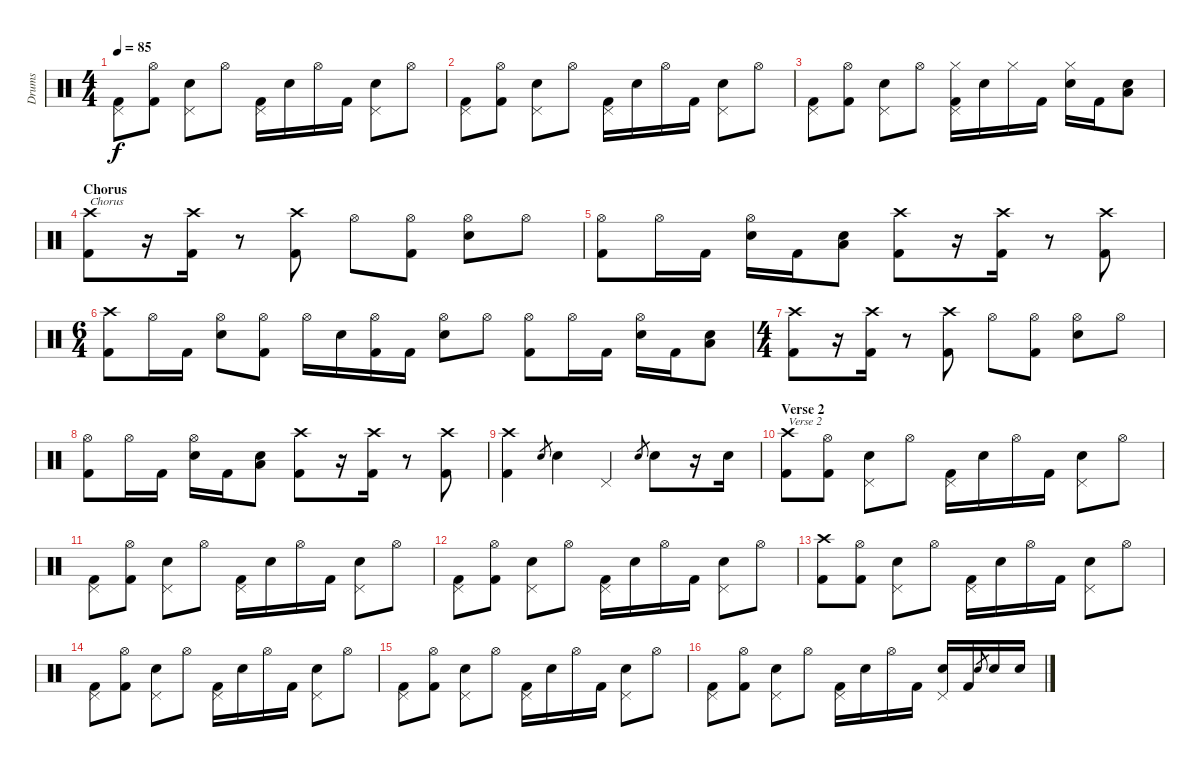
\track ("Drums" "Drums") {instrument percussion}
\staff {score}
\articulation defaults
\ts (4 4)
\tempo 85
\clef neutral
\ks c
("Pedal Hi-Hat (hit)" "Kick (hit) 2").8{dy f} ("Hi-Hat (open)" "Kick (hit) 2").8 ("Electric Snare (hit)" "Pedal Hi-Hat (hit)").8 "Hi-Hat (open)".8 ("Pedal Hi-Hat (hit)" "Kick (hit) 2").16 "Electric Snare (hit)".16 "Hi-Hat (open)".16 "Kick (hit) 2".16 ("Electric Snare (hit)" "Pedal Hi-Hat (hit)").8 "Hi-Hat (open)".8 |
("Pedal Hi-Hat (hit)" "Kick (hit) 2").8 ("Hi-Hat (open)" "Kick (hit) 2").8 ("Electric Snare (hit)" "Pedal Hi-Hat (hit)").8 "Hi-Hat (open)".8 ("Pedal Hi-Hat (hit)" "Kick (hit) 2").16 "Electric Snare (hit)".16 "Hi-Hat (open)".16 "Kick (hit) 2".16 ("Electric Snare (hit)" "Pedal Hi-Hat (hit)").8 "Hi-Hat (open)".8 |
("Pedal Hi-Hat (hit)" "Kick (hit) 2").8 ("Hi-Hat (open)" "Kick (hit) 2").8 ("Electric Snare (hit)" "Pedal Hi-Hat (hit)").8 "Hi-Hat (open)".8 ("Hi-Hat (closed)" "Pedal Hi-Hat (hit)" "Kick (hit) 2").16 "Electric Snare (hit)".16 "Hi-Hat (closed)".16 "Kick (hit) 2".16 ("Hi-Hat (closed)" "Electric Snare (hit)").16 "Kick (hit) 2".16 ("Electric Snare (hit)" "Low Floor Tom (hit)").8 |
\section ("" "Chorus")
("Crash high (hit)" "Kick (hit) 2").8{txt "Chorus"} r.16 ("Crash high (hit)" "Kick (hit) 2").16 r.8 ("Crash high (hit)" "Kick (hit) 2").8 "Hi-Hat (open)".8 ("Hi-Hat (open)" "Kick (hit) 2").8 ("Hi-Hat (open)" "Electric Snare (hit)").8 "Hi-Hat (open)".8 |
("Hi-Hat (open)" "Kick (hit) 2").8 "Hi-Hat (open)".16 "Kick (hit) 2".16 ("Hi-Hat (open)" "Electric Snare (hit)").16 "Kick (hit) 2".16 ("Electric Snare (hit)" "Low Floor Tom (hit)").8 ("Crash high (hit)" "Kick (hit) 2").8 r.16 ("Crash high (hit)" "Kick (hit) 2").16 r.8 ("Crash high (hit)" "Kick (hit) 2").8 |
\ts (6 4)
("Crash high (hit)" "Kick (hit) 2").8 "Hi-Hat (open)".16 "Kick (hit) 2".16 ("Hi-Hat (open)" "Electric Snare (hit)").8 ("Hi-Hat (open)" "Kick (hit) 2").8 "Hi-Hat (open)".16 "Electric Snare (hit)".16 ("Hi-Hat (open)" "Kick (hit) 2").16 "Kick (hit) 2".16 ("Hi-Hat (open)" "Electric Snare (hit)").8 "Hi-Hat (open)".8 ("Hi-Hat (open)" "Kick (hit) 2").8 "Hi-Hat (open)".16 "Kick (hit) 2".16 ("Hi-Hat (open)" "Electric Snare (hit)").16 "Kick (hit) 2".16 ("Electric Snare (hit)" "Low Floor Tom (hit)").8 |
\ts (4 4)
("Crash high (hit)" "Kick (hit) 2").8 r.16 ("Crash high (hit)" "Kick (hit) 2").16 r.8 ("Crash high (hit)" "Kick (hit) 2").8 "Hi-Hat (open)".8 ("Hi-Hat (open)" "Kick (hit) 2").8 ("Hi-Hat (open)" "Electric Snare (hit)").8 "Hi-Hat (open)".8 |
("Hi-Hat (open)" "Kick (hit) 2").8 "Hi-Hat (open)".16 "Kick (hit) 2".16 ("Hi-Hat (open)" "Electric Snare (hit)").16 "Kick (hit) 2".16 ("Electric Snare (hit)" "Low Floor Tom (hit)").8 ("Crash high (hit)" "Kick (hit) 2").8 r.16 ("Crash high (hit)" "Kick (hit) 2").16 r.8 ("Crash high (hit)" "Kick (hit) 2").8 |
("Crash high (hit)" "Kick (hit) 2").4 "Electric Snare (hit)".8{gr} "Electric Snare (hit)".4 "Pedal Hi-Hat (hit)".4 "Electric Snare (hit)".8{gr} "Electric Snare (hit)".8 r.16 "Electric Snare (hit)".16 |
\section ("" "Verse 2")
("Crash high (hit)" "Kick (hit) 2").8{txt "Verse 2"} ("Hi-Hat (open)" "Kick (hit) 2").8 ("Electric Snare (hit)" "Pedal Hi-Hat (hit)").8 "Hi-Hat (open)".8 ("Pedal Hi-Hat (hit)" "Kick (hit) 2").16 "Electric Snare (hit)".16 "Hi-Hat (open)".16 "Kick (hit) 2".16 ("Electric Snare (hit)" "Pedal Hi-Hat (hit)").8 "Hi-Hat (open)".8 |
("Pedal Hi-Hat (hit)" "Kick (hit) 2").8 ("Hi-Hat (open)" "Kick (hit) 2").8 ("Electric Snare (hit)" "Pedal Hi-Hat (hit)").8 "Hi-Hat (open)".8 ("Pedal Hi-Hat (hit)" "Kick (hit) 2").16 "Electric Snare (hit)".16 "Hi-Hat (open)".16 "Kick (hit) 2".16 ("Electric Snare (hit)" "Pedal Hi-Hat (hit)").8 "Hi-Hat (open)".8 |
("Pedal Hi-Hat (hit)" "Kick (hit) 2").8 ("Hi-Hat (open)" "Kick (hit) 2").8 ("Electric Snare (hit)" "Pedal Hi-Hat (hit)").8 "Hi-Hat (open)".8 ("Pedal Hi-Hat (hit)" "Kick (hit) 2").16 "Electric Snare (hit)".16 "Hi-Hat (open)".16 "Kick (hit) 2".16 ("Electric Snare (hit)" "Pedal Hi-Hat (hit)").8 "Hi-Hat (open)".8 |
("Crash high (hit)" "Kick (hit) 2").8 ("Hi-Hat (open)" "Kick (hit) 2").8 ("Electric Snare (hit)" "Pedal Hi-Hat (hit)").8 "Hi-Hat (open)".8 ("Pedal Hi-Hat (hit)" "Kick (hit) 2").16 "Electric Snare (hit)".16 "Hi-Hat (open)".16 "Kick (hit) 2".16 ("Electric Snare (hit)" "Pedal Hi-Hat (hit)").8 "Hi-Hat (open)".8 |
("Pedal Hi-Hat (hit)" "Kick (hit) 2").8 ("Hi-Hat (open)" "Kick (hit) 2").8 ("Electric Snare (hit)" "Pedal Hi-Hat (hit)").8 "Hi-Hat (open)".8 ("Pedal Hi-Hat (hit)" "Kick (hit) 2").16 "Electric Snare (hit)".16 "Hi-Hat (open)".16 "Kick (hit) 2".16 ("Electric Snare (hit)" "Pedal Hi-Hat (hit)").8 "Hi-Hat (open)".8 |
("Pedal Hi-Hat (hit)" "Kick (hit) 2").8 ("Hi-Hat (open)" "Kick (hit) 2").8 ("Electric Snare (hit)" "Pedal Hi-Hat (hit)").8 "Hi-Hat (open)".8 ("Pedal Hi-Hat (hit)" "Kick (hit) 2").16 "Electric Snare (hit)".16 "Hi-Hat (open)".16 "Kick (hit) 2".16 ("Electric Snare (hit)" "Pedal Hi-Hat (hit)").8 "Hi-Hat (open)".8 |
("Pedal Hi-Hat (hit)" "Kick (hit) 2").8 ("Hi-Hat (open)" "Kick (hit) 2").8 ("Electric Snare (hit)" "Pedal Hi-Hat (hit)").8 "Hi-Hat (open)".8 ("Pedal Hi-Hat (hit)" "Kick (hit) 2").16 "Electric Snare (hit)".16 "Hi-Hat (open)".16 "Kick (hit) 2".16 ("Electric Snare (hit)" "Pedal Hi-Hat (hit)").16 "Kick (hit) 2".16 "Electric Snare (hit)".8{gr} "Electric Snare (hit)".16 "Electric Snare (hit)".16
